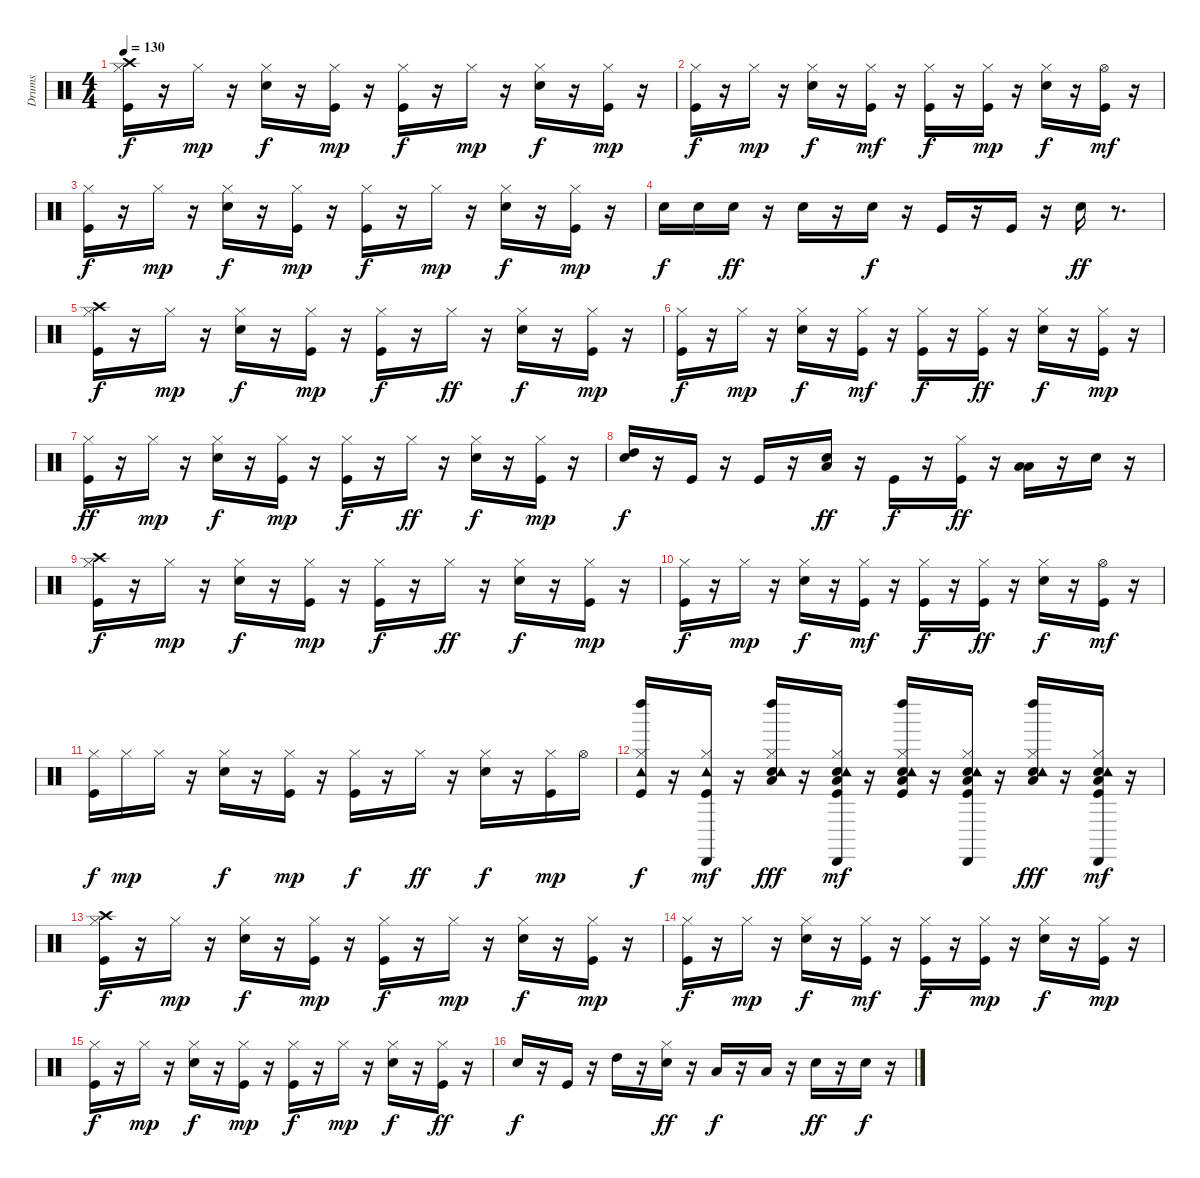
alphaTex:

\track ("Drums" "Drums") {instrument percussion}
\staff {score}
\articulation defaults
\ts (4 4)
\tempo 130
\clef neutral
\ks c
("Kick (hit)" "Hi-Hat (closed)" "Crash high (hit)").16{dy f} r.16 "Hi-Hat (closed)".16{dy mp} r.16 ("Snare (hit) 2" "Hi-Hat (closed)").16{dy f} r.16 ("Kick (hit)" "Hi-Hat (closed)").16{dy mp} r.16 ("Kick (hit)" "Hi-Hat (closed)").16{dy f} r.16 "Hi-Hat (closed)".16{dy mp} r.16 ("Snare (hit) 2" "Hi-Hat (closed)").16{dy f} r.16 ("Kick (hit)" "Hi-Hat (closed)").16{dy mp} r.16 |
("Kick (hit)" "Hi-Hat (closed)").16{dy f} r.16 "Hi-Hat (closed)".16{dy mp} r.16 ("Snare (hit) 2" "Hi-Hat (closed)").16{dy f} r.16 ("Kick (hit)" "Hi-Hat (closed)").16{dy mf} r.16 ("Kick (hit)" "Hi-Hat (closed)").16{dy f} r.16 ("Kick (hit)" "Hi-Hat (closed)").16{dy mp} r.16 ("Snare (hit) 2" "Hi-Hat (closed)").16{dy f} r.16 ("Kick (hit)" "Hi-Hat (open)").16{dy mf} r.16 |
("Kick (hit)" "Hi-Hat (closed)").16{dy f} r.16 "Hi-Hat (closed)".16{dy mp} r.16 ("Snare (hit) 2" "Hi-Hat (closed)").16{dy f} r.16 ("Kick (hit)" "Hi-Hat (closed)").16{dy mp} r.16 ("Kick (hit)" "Hi-Hat (closed)").16{dy f} r.16 "Hi-Hat (closed)".16{dy mp} r.16 ("Snare (hit) 2" "Hi-Hat (closed)").16{dy f} r.16 ("Kick (hit)" "Hi-Hat (closed)").16{dy mp} r.16 |
"Snare (hit) 2".16{dy f} "Snare (hit) 2".16 "Snare (hit) 2".16{dy ff} r.16 "Snare (hit) 2".16 r.16 "Snare (hit) 2".16{dy f} r.16 "Kick (hit)".16 r.16 "Kick (hit)".16 r.16 "Snare (hit) 2".16{dy ff} r.8{d} |
("Kick (hit)" "Hi-Hat (closed)" "Crash high (hit)").16{dy f} r.16 "Hi-Hat (closed)".16{dy mp} r.16 ("Snare (hit) 2" "Hi-Hat (closed)").16{dy f} r.16 ("Kick (hit)" "Hi-Hat (closed)").16{dy mp} r.16 ("Kick (hit)" "Hi-Hat (closed)").16{dy f} r.16 "Hi-Hat (closed)".16{dy ff} r.16 ("Snare (hit) 2" "Hi-Hat (closed)").16{dy f} r.16 ("Kick (hit)" "Hi-Hat (closed)").16{dy mp} r.16 |
("Kick (hit)" "Hi-Hat (closed)").16{dy f} r.16 "Hi-Hat (closed)".16{dy mp} r.16 ("Snare (hit) 2" "Hi-Hat (closed)").16{dy f} r.16 ("Kick (hit)" "Hi-Hat (closed)").16{dy mf} r.16 ("Kick (hit)" "Hi-Hat (closed)").16{dy f} r.16 ("Kick (hit)" "Hi-Hat (closed)").16{dy ff} r.16 ("Snare (hit) 2" "Hi-Hat (closed)").16{dy f} r.16 ("Kick (hit)" "Hi-Hat (closed)").16{dy mp} r.16 |
("Kick (hit)" "Hi-Hat (closed)").16{dy ff} r.16 "Hi-Hat (closed)".16{dy mp} r.16 ("Snare (hit) 2" "Hi-Hat (closed)").16{dy f} r.16 ("Kick (hit)" "Hi-Hat (closed)").16{dy mp} r.16 ("Kick (hit)" "Hi-Hat (closed)").16{dy f} r.16 "Hi-Hat (closed)".16{dy ff} r.16 ("Snare (hit) 2" "Hi-Hat (closed)").16{dy f} r.16 ("Kick (hit)" "Hi-Hat (closed)").16{dy mp} r.16 |
("Snare (hit) 2" "High Tom (hit)").16{dy f} r.16 "Kick (hit)".16 r.16 "Kick (hit)".16 r.16 ("Snare (hit) 2" "Low Tom (hit)").16{dy ff} r.16 "Kick (hit)".16{dy f} r.16 ("Kick (hit)" "Hi-Hat (closed)").16{dy ff} r.16 ("Low Floor Tom (hit)" "Low Tom (hit)").16 r.16 "Snare (hit) 2".16 r.16 |
("Kick (hit)" "Hi-Hat (closed)" "Crash high (hit)").16{dy f} r.16 "Hi-Hat (closed)".16{dy mp} r.16 ("Snare (hit) 2" "Hi-Hat (closed)").16{dy f} r.16 ("Kick (hit)" "Hi-Hat (closed)").16{dy mp} r.16 ("Kick (hit)" "Hi-Hat (closed)").16{dy f} r.16 "Hi-Hat (closed)".16{dy ff} r.16 ("Snare (hit) 2" "Hi-Hat (closed)").16{dy f} r.16 ("Kick (hit)" "Hi-Hat (closed)").16{dy mp} r.16 |
("Kick (hit)" "Hi-Hat (closed)").16{dy f} r.16 "Hi-Hat (closed)".16{dy mp} r.16 ("Snare (hit) 2" "Hi-Hat (closed)").16{dy f} r.16 ("Kick (hit)" "Hi-Hat (closed)").16{dy mf} r.16 ("Kick (hit)" "Hi-Hat (closed)").16{dy f} r.16 ("Kick (hit)" "Hi-Hat (closed)").16{dy ff} r.16 ("Snare (hit) 2" "Hi-Hat (closed)").16{dy f} r.16 ("Kick (hit)" "Hi-Hat (open)").16{dy mf} r.16 |
("Kick (hit)" "Hi-Hat (closed)").16{dy f} "Hi-Hat (closed)".16{dy mp} "Hi-Hat (closed)".16 r.16 ("Snare (hit) 2" "Hi-Hat (closed)").16{dy f} r.16 ("Kick (hit)" "Hi-Hat (closed)").16{dy mp} r.16 ("Kick (hit)" "Hi-Hat (closed)").16{dy f} r.16 "Hi-Hat (closed)".16{dy ff} r.16 ("Snare (hit) 2" "Hi-Hat (closed)").16{dy f} r.16 ("Kick (hit)" "Hi-Hat (closed)").16{dy mp} "Hi-Hat (open)".16 |
("Kick (hit)" "Hi-Hat (closed)" "Tambourine (hit)" "Left Maraca (hit)").16{dy f} r.16 ("Kick (hit)" "Hi-Hat (closed)" "Tambourine (hit)" "Cabasa (hit)").16{dy mf} r.16 ("Snare (hit) 2" "Hi-Hat (closed)" "Low Floor Tom (hit)" "Tambourine (hit)" "Left Maraca (hit)").16{dy fff} r.16 ("Kick (hit)" "Snare (hit) 2" "Hi-Hat (closed)" "Low Floor Tom (hit)" "Tambourine (hit)" "Cabasa (hit)").16{dy mf} r.16 ("Kick (hit)" "Snare (hit) 2" "Hi-Hat (closed)" "Low Floor Tom (hit)" "Tambourine (hit)" "Left Maraca (hit)").16 r.16 ("Kick (hit)" "Snare (hit) 2" "Hi-Hat (closed)" "Low Floor Tom (hit)" "Tambourine (hit)" "Cabasa (hit)").16 r.16 ("Snare (hit) 2" "Hi-Hat (closed)" "Low Floor Tom (hit)" "Tambourine (hit)" "Left Maraca (hit)").16{dy fff} r.16 ("Kick (hit)" "Snare (hit) 2" "Hi-Hat (closed)" "Low Floor Tom (hit)" "Tambourine (hit)" "Cabasa (hit)").16{dy mf} r.16 |
("Kick (hit)" "Hi-Hat (closed)" "Crash high (hit)").16{dy f} r.16 "Hi-Hat (closed)".16{dy mp} r.16 ("Snare (hit) 2" "Hi-Hat (closed)").16{dy f} r.16 ("Kick (hit)" "Hi-Hat (closed)").16{dy mp} r.16 ("Kick (hit)" "Hi-Hat (closed)").16{dy f} r.16 "Hi-Hat (closed)".16{dy mp} r.16 ("Snare (hit) 2" "Hi-Hat (closed)").16{dy f} r.16 ("Kick (hit)" "Hi-Hat (closed)").16{dy mp} r.16 |
("Kick (hit)" "Hi-Hat (closed)").16{dy f} r.16 "Hi-Hat (closed)".16{dy mp} r.16 ("Snare (hit) 2" "Hi-Hat (closed)").16{dy f} r.16 ("Kick (hit)" "Hi-Hat (closed)").16{dy mf} r.16 ("Kick (hit)" "Hi-Hat (closed)").16{dy f} r.16 ("Kick (hit)" "Hi-Hat (closed)").16{dy mp} r.16 ("Snare (hit) 2" "Hi-Hat (closed)").16{dy f} r.16 ("Kick (hit)" "Hi-Hat (closed)").16{dy mp} r.16 |
("Kick (hit)" "Hi-Hat (closed)").16{dy f} r.16 "Hi-Hat (closed)".16{dy mp} r.16 ("Snare (hit) 2" "Hi-Hat (closed)").16{dy f} r.16 ("Kick (hit)" "Hi-Hat (closed)").16{dy mp} r.16 ("Kick (hit)" "Hi-Hat (closed)").16{dy f} r.16 "Hi-Hat (closed)".16{dy mp} r.16 ("Snare (hit) 2" "Hi-Hat (closed)").16{dy f} r.16 ("Kick (hit)" "Hi-Hat (closed)").16{dy ff} r.16 |
"Snare (hit) 2".16{dy f} r.16 "Kick (hit)".16 r.16 "High Tom (hit)".16 r.16 ("Snare (hit) 2" "Hi-Hat (closed)").16{dy ff} r.16 "Low Tom (hit)".16{dy f} r.16 "Low Tom (hit)".16 r.16 "Snare (hit) 2".16{dy ff} r.16 "Snare (hit) 2".16{dy f} r.16
